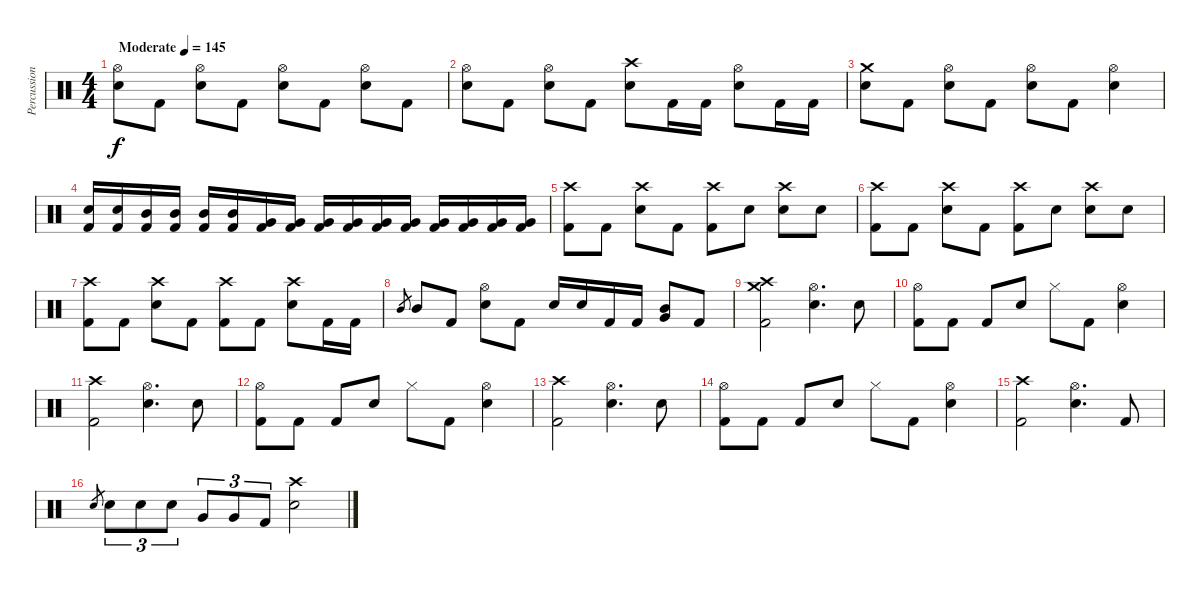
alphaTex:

\track ("Percussion" "Percussion") {instrument percussion}
\staff {score}
\articulation defaults
\ts (4 4)
\tempo (145 "Moderate")
\clef neutral
\ks c
("Hi-Hat (open)" "Snare (hit) 2").8{dy f} "Kick (hit) 2".8 ("Hi-Hat (open)" "Snare (hit) 2").8 "Kick (hit) 2".8 ("Hi-Hat (open)" "Snare (hit) 2").8 "Kick (hit) 2".8 ("Hi-Hat (open)" "Snare (hit) 2").8 "Kick (hit) 2".8 |
("Hi-Hat (open)" "Snare (hit) 2").8 "Kick (hit) 2".8 ("Hi-Hat (open)" "Snare (hit) 2").8 "Kick (hit) 2".8 ("Crash high (hit)" "Snare (hit) 2").8 "Kick (hit) 2".16 "Kick (hit) 2".16 ("Hi-Hat (open)" "Snare (hit) 2").8 "Kick (hit) 2".16 "Kick (hit) 2".16 |
("Crash medium (hit)" "Snare (hit) 2").8 "Kick (hit) 2".8 ("Hi-Hat (open)" "Snare (hit) 2").8 "Kick (hit) 2".8 ("Hi-Hat (open)" "Snare (hit) 2").8 "Kick (hit) 2".8 ("Hi-Hat (open)" "Snare (hit) 2").4 |
("Snare (hit) 2" "Kick (hit) 2").16 ("Snare (hit) 2" "Kick (hit) 2").16 ("Mid Tom (hit)" "Kick (hit) 2").16 ("Mid Tom (hit)" "Kick (hit) 2").16 ("Mid Tom (hit)" "Kick (hit) 2").16 ("Mid Tom (hit)" "Kick (hit) 2").16 ("Very Low Tom (hit)" "Kick (hit) 2").16 ("Very Low Tom (hit)" "Kick (hit) 2").16 ("Very Low Tom (hit)" "Kick (hit) 2").16 ("Very Low Tom (hit)" "Kick (hit) 2").16 ("Very Low Tom (hit)" "Kick (hit) 2").16 ("Very Low Tom (hit)" "Kick (hit) 2").16 ("Very Low Tom (hit)" "Kick (hit) 2").16 ("Very Low Tom (hit)" "Kick (hit) 2").16 ("Very Low Tom (hit)" "Kick (hit) 2").16 ("Very Low Tom (hit)" "Kick (hit) 2").16 |
("Crash high (hit)" "Kick (hit) 2").8 "Kick (hit) 2".8 ("Crash high (hit)" "Snare (hit) 2").8 "Kick (hit) 2".8 ("Crash high (hit)" "Kick (hit) 2").8 "Snare (hit) 2".8 ("Crash high (hit)" "Snare (hit) 2").8 "Snare (hit) 2".8 |
("Crash high (hit)" "Kick (hit) 2").8 "Kick (hit) 2".8 ("Crash high (hit)" "Snare (hit) 2").8 "Kick (hit) 2".8 ("Crash high (hit)" "Kick (hit) 2").8 "Snare (hit) 2".8 ("Crash high (hit)" "Snare (hit) 2").8 "Snare (hit) 2".8 |
("Crash high (hit)" "Kick (hit) 2").8 "Kick (hit) 2".8 ("Crash high (hit)" "Snare (hit) 2").8 "Kick (hit) 2".8 ("Crash high (hit)" "Kick (hit) 2").8 "Kick (hit) 2".8 ("Crash high (hit)" "Snare (hit) 2").8 "Kick (hit) 2".16 "Kick (hit) 2".16 |
"Mid Tom (hit)".8{gr} "Mid Tom (hit)".8 "Kick (hit) 2".8 ("Hi-Hat (open)" "Snare (hit) 2").8 "Kick (hit) 2".8 "Snare (hit) 2".16 "Snare (hit) 2".16 "Kick (hit) 2".16 "Kick (hit) 2".16 ("Mid Tom (hit)" "Very Low Tom (hit)").8 "Kick (hit) 2".8 |
("Crash high (hit)" "Crash medium (hit)" "Kick (hit) 2").2 ("Hi-Hat (open)" "Snare (hit) 2").4{d} "Snare (hit) 2".8 |
("Hi-Hat (open)" "Kick (hit) 2").8 "Kick (hit) 2".8 "Kick (hit) 2".8 "Snare (hit) 2".8 "Hi-Hat (closed)".8 "Kick (hit) 2".8 ("Hi-Hat (open)" "Snare (hit) 2").4 |
("Crash high (hit)" "Kick (hit) 2").2 ("Hi-Hat (open)" "Snare (hit) 2").4{d} "Snare (hit) 2".8 |
("Hi-Hat (open)" "Kick (hit) 2").8 "Kick (hit) 2".8 "Kick (hit) 2".8 "Snare (hit) 2".8 "Hi-Hat (closed)".8 "Kick (hit) 2".8 ("Hi-Hat (open)" "Snare (hit) 2").4 |
("Crash high (hit)" "Kick (hit) 2").2 ("Hi-Hat (open)" "Snare (hit) 2").4{d} "Snare (hit) 2".8 |
("Hi-Hat (open)" "Kick (hit) 2").8 "Kick (hit) 2".8 "Kick (hit) 2".8 "Snare (hit) 2".8 "Hi-Hat (closed)".8 "Kick (hit) 2".8 ("Hi-Hat (open)" "Snare (hit) 2").4 |
("Crash high (hit)" "Kick (hit) 2").2 ("Hi-Hat (open)" "Snare (hit) 2").4{d} "Kick (hit) 2".8 |
"Snare (hit) 2".8{gr} "Snare (hit) 2".8{tu (3 2)} "Snare (hit) 2".8{tu (3 2)} "Snare (hit) 2".8{tu (3 2)} "Very Low Tom (hit)".8{tu (3 2)} "Very Low Tom (hit)".8{tu (3 2)} "Kick (hit) 2".8{tu (3 2)} ("Crash high (hit)" "Snare (hit) 2").2
